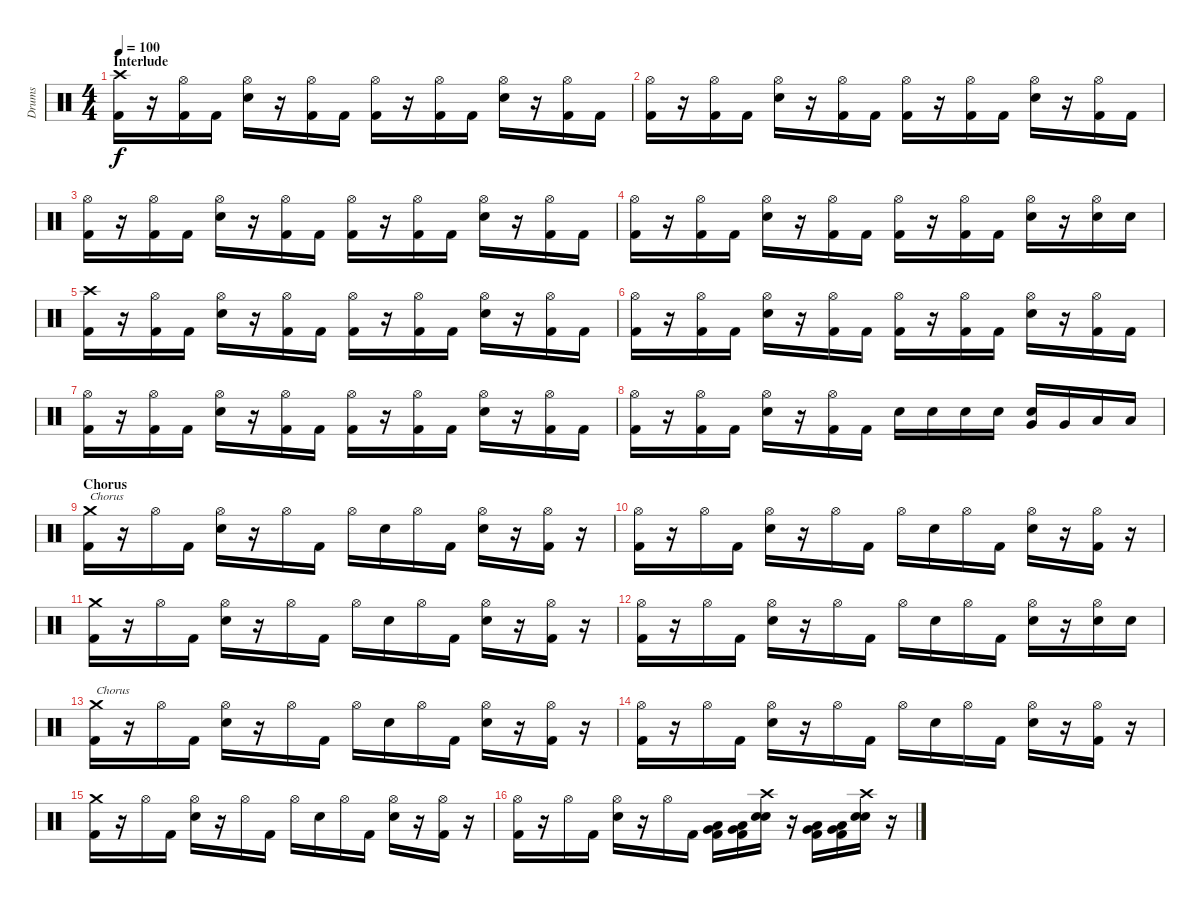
\track ("Drums" "Drums") {instrument percussion}
\staff {score}
\articulation defaults
\ts (4 4)
\section ("" "Interlude")
\tempo 100
\clef neutral
\ks c
("Crash high (hit)" "Kick (hit) 2").16{dy f} r.16 ("Hi-Hat (open)" "Kick (hit) 2").16 "Kick (hit) 2".16 ("Hi-Hat (open)" "Electric Snare (hit)").16 r.16 ("Hi-Hat (open)" "Kick (hit) 2").16 "Kick (hit) 2".16 ("Hi-Hat (open)" "Kick (hit) 2").16 r.16 ("Hi-Hat (open)" "Kick (hit) 2").16 "Kick (hit) 2".16 ("Hi-Hat (open)" "Electric Snare (hit)").16 r.16 ("Hi-Hat (open)" "Kick (hit) 2").16 "Kick (hit) 2".16 |
("Hi-Hat (open)" "Kick (hit) 2").16 r.16 ("Hi-Hat (open)" "Kick (hit) 2").16 "Kick (hit) 2".16 ("Hi-Hat (open)" "Electric Snare (hit)").16 r.16 ("Hi-Hat (open)" "Kick (hit) 2").16 "Kick (hit) 2".16 ("Hi-Hat (open)" "Kick (hit) 2").16 r.16 ("Hi-Hat (open)" "Kick (hit) 2").16 "Kick (hit) 2".16 ("Hi-Hat (open)" "Electric Snare (hit)").16 r.16 ("Hi-Hat (open)" "Kick (hit) 2").16 "Kick (hit) 2".16 |
("Hi-Hat (open)" "Kick (hit) 2").16 r.16 ("Hi-Hat (open)" "Kick (hit) 2").16 "Kick (hit) 2".16 ("Hi-Hat (open)" "Electric Snare (hit)").16 r.16 ("Hi-Hat (open)" "Kick (hit) 2").16 "Kick (hit) 2".16 ("Hi-Hat (open)" "Kick (hit) 2").16 r.16 ("Hi-Hat (open)" "Kick (hit) 2").16 "Kick (hit) 2".16 ("Hi-Hat (open)" "Electric Snare (hit)").16 r.16 ("Hi-Hat (open)" "Kick (hit) 2").16 "Kick (hit) 2".16 |
("Hi-Hat (open)" "Kick (hit) 2").16 r.16 ("Hi-Hat (open)" "Kick (hit) 2").16 "Kick (hit) 2".16 ("Hi-Hat (open)" "Electric Snare (hit)").16 r.16 ("Hi-Hat (open)" "Kick (hit) 2").16 "Kick (hit) 2".16 ("Hi-Hat (open)" "Kick (hit) 2").16 r.16 ("Hi-Hat (open)" "Kick (hit) 2").16 "Kick (hit) 2".16 ("Hi-Hat (open)" "Electric Snare (hit)").16 r.16 ("Hi-Hat (open)" "Electric Snare (hit)").16 "Electric Snare (hit)".16 |
("Crash high (hit)" "Kick (hit) 2").16 r.16 ("Hi-Hat (open)" "Kick (hit) 2").16 "Kick (hit) 2".16 ("Hi-Hat (open)" "Electric Snare (hit)").16 r.16 ("Hi-Hat (open)" "Kick (hit) 2").16 "Kick (hit) 2".16 ("Hi-Hat (open)" "Kick (hit) 2").16 r.16 ("Hi-Hat (open)" "Kick (hit) 2").16 "Kick (hit) 2".16 ("Hi-Hat (open)" "Electric Snare (hit)").16 r.16 ("Hi-Hat (open)" "Kick (hit) 2").16 "Kick (hit) 2".16 |
("Hi-Hat (open)" "Kick (hit) 2").16 r.16 ("Hi-Hat (open)" "Kick (hit) 2").16 "Kick (hit) 2".16 ("Hi-Hat (open)" "Electric Snare (hit)").16 r.16 ("Hi-Hat (open)" "Kick (hit) 2").16 "Kick (hit) 2".16 ("Hi-Hat (open)" "Kick (hit) 2").16 r.16 ("Hi-Hat (open)" "Kick (hit) 2").16 "Kick (hit) 2".16 ("Hi-Hat (open)" "Electric Snare (hit)").16 r.16 ("Hi-Hat (open)" "Kick (hit) 2").16 "Kick (hit) 2".16 |
("Hi-Hat (open)" "Kick (hit) 2").16 r.16 ("Hi-Hat (open)" "Kick (hit) 2").16 "Kick (hit) 2".16 ("Hi-Hat (open)" "Electric Snare (hit)").16 r.16 ("Hi-Hat (open)" "Kick (hit) 2").16 "Kick (hit) 2".16 ("Hi-Hat (open)" "Kick (hit) 2").16 r.16 ("Hi-Hat (open)" "Kick (hit) 2").16 "Kick (hit) 2".16 ("Hi-Hat (open)" "Electric Snare (hit)").16 r.16 ("Hi-Hat (open)" "Kick (hit) 2").16 "Kick (hit) 2".16 |
("Hi-Hat (open)" "Kick (hit) 2").16 r.16 ("Hi-Hat (open)" "Kick (hit) 2").16 "Kick (hit) 2".16 ("Hi-Hat (open)" "Electric Snare (hit)").16 r.16 ("Hi-Hat (open)" "Kick (hit) 2").16 "Kick (hit) 2".16 "Electric Snare (hit)".16 "Electric Snare (hit)".16 "Electric Snare (hit)".16 "Electric Snare (hit)".16 ("Very Low Tom (hit)" "Electric Snare (hit)").16 "Very Low Tom (hit)".16 "Low Floor Tom (hit)".16 "Low Floor Tom (hit)".16 |
\section ("" "Chorus")
("Crash medium (hit)" "Kick (hit) 2").16{txt "Chorus "} r.16 "Hi-Hat (open)".16 "Kick (hit) 2".16 ("Hi-Hat (open)" "Electric Snare (hit)").16 r.16 "Hi-Hat (open)".16 "Kick (hit) 2".16 "Hi-Hat (open)".16 "Electric Snare (hit)".16 "Hi-Hat (open)".16 "Kick (hit) 2".16 ("Hi-Hat (open)" "Electric Snare (hit)").16 r.16 ("Hi-Hat (open)" "Kick (hit) 2").16 r.16 |
("Hi-Hat (open)" "Kick (hit) 2").16 r.16 "Hi-Hat (open)".16 "Kick (hit) 2".16 ("Hi-Hat (open)" "Electric Snare (hit)").16 r.16 "Hi-Hat (open)".16 "Kick (hit) 2".16 "Hi-Hat (open)".16 "Electric Snare (hit)".16 "Hi-Hat (open)".16 "Kick (hit) 2".16 ("Hi-Hat (open)" "Electric Snare (hit)").16 r.16 ("Hi-Hat (open)" "Kick (hit) 2").16 r.16 |
("Crash medium (hit)" "Kick (hit) 2").16 r.16 "Hi-Hat (open)".16 "Kick (hit) 2".16 ("Hi-Hat (open)" "Electric Snare (hit)").16 r.16 "Hi-Hat (open)".16 "Kick (hit) 2".16 "Hi-Hat (open)".16 "Electric Snare (hit)".16 "Hi-Hat (open)".16 "Kick (hit) 2".16 ("Hi-Hat (open)" "Electric Snare (hit)").16 r.16 ("Hi-Hat (open)" "Kick (hit) 2").16 r.16 |
("Hi-Hat (open)" "Kick (hit) 2").16 r.16 "Hi-Hat (open)".16 "Kick (hit) 2".16 ("Hi-Hat (open)" "Electric Snare (hit)").16 r.16 "Hi-Hat (open)".16 "Kick (hit) 2".16 "Hi-Hat (open)".16 "Electric Snare (hit)".16 "Hi-Hat (open)".16 "Kick (hit) 2".16 ("Hi-Hat (open)" "Electric Snare (hit)").16 r.16 ("Hi-Hat (open)" "Electric Snare (hit)").16 "Electric Snare (hit)".16 |
("Crash medium (hit)" "Kick (hit) 2").16{txt "Chorus "} r.16 "Hi-Hat (open)".16 "Kick (hit) 2".16 ("Hi-Hat (open)" "Electric Snare (hit)").16 r.16 "Hi-Hat (open)".16 "Kick (hit) 2".16 "Hi-Hat (open)".16 "Electric Snare (hit)".16 "Hi-Hat (open)".16 "Kick (hit) 2".16 ("Hi-Hat (open)" "Electric Snare (hit)").16 r.16 ("Hi-Hat (open)" "Kick (hit) 2").16 r.16 |
("Hi-Hat (open)" "Kick (hit) 2").16 r.16 "Hi-Hat (open)".16 "Kick (hit) 2".16 ("Hi-Hat (open)" "Electric Snare (hit)").16 r.16 "Hi-Hat (open)".16 "Kick (hit) 2".16 "Hi-Hat (open)".16 "Electric Snare (hit)".16 "Hi-Hat (open)".16 "Kick (hit) 2".16 ("Hi-Hat (open)" "Electric Snare (hit)").16 r.16 ("Hi-Hat (open)" "Kick (hit) 2").16 r.16 |
("Crash medium (hit)" "Kick (hit) 2").16 r.16 "Hi-Hat (open)".16 "Kick (hit) 2".16 ("Hi-Hat (open)" "Electric Snare (hit)").16 r.16 "Hi-Hat (open)".16 "Kick (hit) 2".16 "Hi-Hat (open)".16 "Electric Snare (hit)".16 "Hi-Hat (open)".16 "Kick (hit) 2".16 ("Hi-Hat (open)" "Electric Snare (hit)").16 r.16 ("Hi-Hat (open)" "Kick (hit) 2").16 r.16 |
("Hi-Hat (open)" "Kick (hit) 2").16 r.16 "Hi-Hat (open)".16 "Kick (hit) 2".16 ("Hi-Hat (open)" "Electric Snare (hit)").16 r.16 "Hi-Hat (open)".16 "Kick (hit) 2".16 ("Very Low Tom (hit)" "Low Floor Tom (hit)" "Kick (hit) 2").16 ("Very Low Tom (hit)" "Low Floor Tom (hit)" "Kick (hit) 2").16 ("Crash high (hit)" "Snare (hit) 2" "Electric Snare (hit)").16 r.16 ("Very Low Tom (hit)" "Low Floor Tom (hit)" "Kick (hit) 2").16 ("Very Low Tom (hit)" "Low Floor Tom (hit)" "Kick (hit) 2").16 ("Crash high (hit)" "Snare (hit) 2" "Electric Snare (hit)").16 r.16
